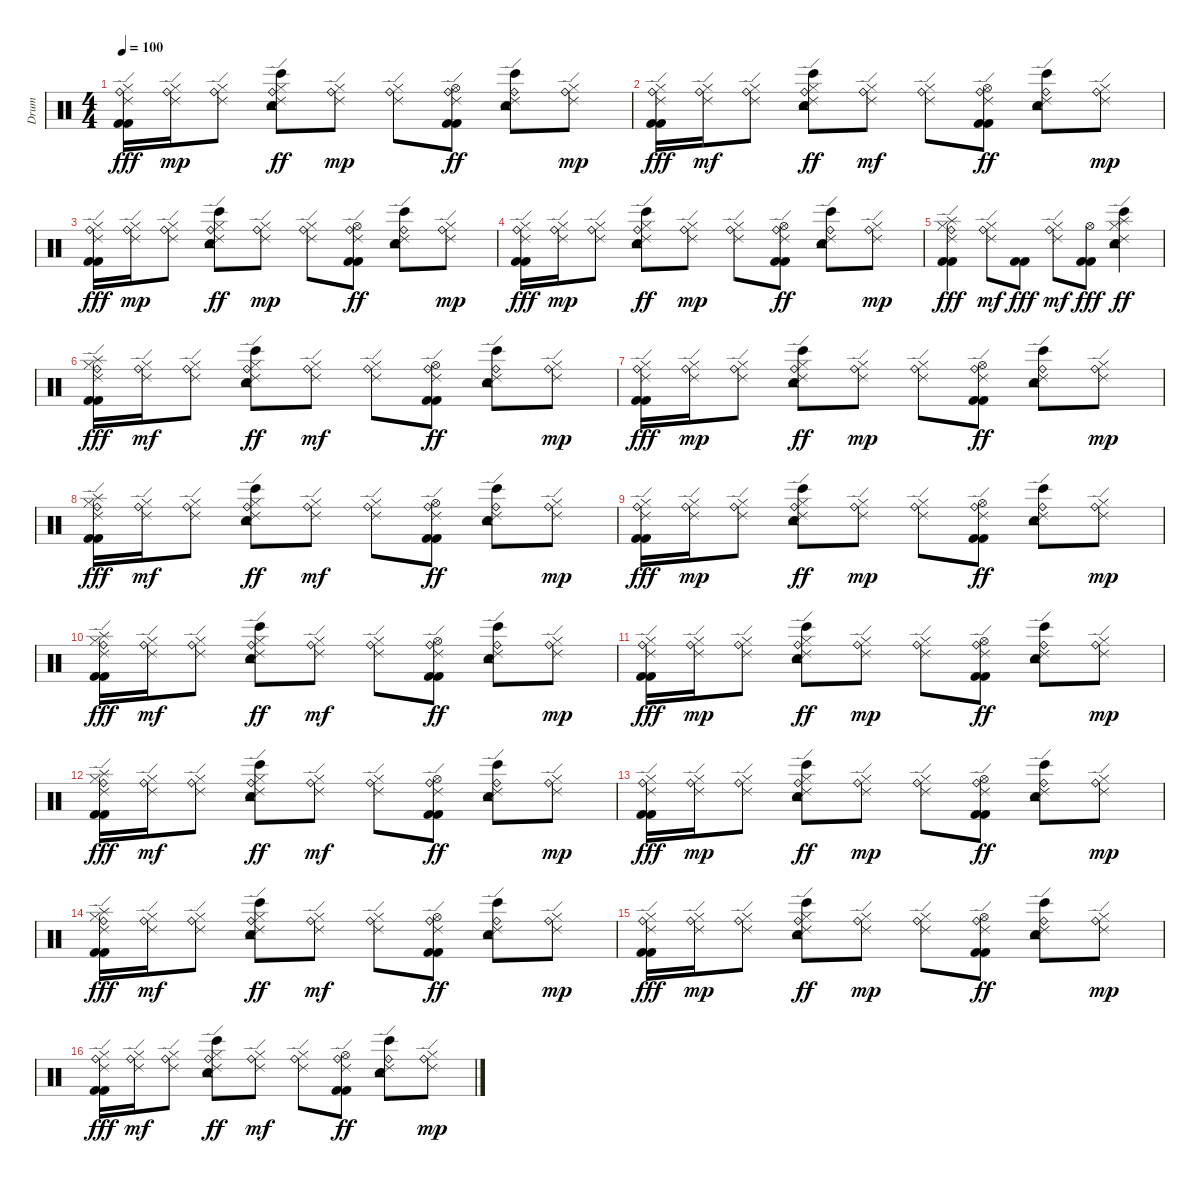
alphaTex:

\track ("Drum" "Drum") {instrument percussion}
\staff {score}
\articulation defaults
\ts (4 4)
\tempo 100
\clef neutral
\ks c
("Ride (bell)" "Ride (edge) 2" "Hi-Hat (closed)" "Kick (hit) 2" "Kick (hit) 2").16{dy fff} ("Ride (bell)" "Ride (edge) 2" "Hi-Hat (closed)").16{dy mp} ("Ride (bell)" "Ride (edge) 2" "Hi-Hat (closed)").8 ("Snare (hit) 2" "Ride (bell)" "Ride (edge) 2" "Hi-Hat (closed)" "Bongo High (hit)" "Tambourine (hit)").8{dy ff} ("Ride (bell)" "Ride (edge) 2" "Hi-Hat (closed)").8{dy mp} ("Ride (bell)" "Ride (edge) 2" "Hi-Hat (closed)").8 ("Ride (bell)" "Ride (edge) 2" "Hi-Hat (open)" "Kick (hit) 2" "Kick (hit) 2").8{dy ff} ("Snare (hit) 2" "Ride (bell)" "Ride (edge) 2" "Bongo High (hit)" "Tambourine (hit)").8 ("Ride (bell)" "Ride (edge) 2" "Hi-Hat (closed)").8{dy mp} |
("Ride (bell)" "Ride (edge) 2" "Hi-Hat (closed)" "Kick (hit) 2" "Kick (hit) 2").16{dy fff} ("Ride (bell)" "Ride (edge) 2" "Hi-Hat (closed)").16{dy mf} ("Ride (bell)" "Ride (edge) 2" "Hi-Hat (closed)").8 ("Snare (hit) 2" "Ride (bell)" "Ride (edge) 2" "Hi-Hat (closed)" "Bongo High (hit)" "Tambourine (hit)").8{dy ff} ("Ride (bell)" "Ride (edge) 2" "Hi-Hat (closed)").8{dy mf} ("Ride (bell)" "Ride (edge) 2" "Hi-Hat (closed)").8 ("Ride (bell)" "Ride (edge) 2" "Hi-Hat (open)" "Kick (hit) 2" "Kick (hit) 2").8{dy ff} ("Snare (hit) 2" "Ride (bell)" "Ride (edge) 2" "Bongo High (hit)" "Tambourine (hit)").8 ("Ride (bell)" "Ride (edge) 2" "Hi-Hat (closed)").8{dy mp} |
("Ride (bell)" "Ride (edge) 2" "Hi-Hat (closed)" "Kick (hit) 2" "Kick (hit) 2").16{dy fff} ("Ride (bell)" "Ride (edge) 2" "Hi-Hat (closed)").16{dy mp} ("Ride (bell)" "Ride (edge) 2" "Hi-Hat (closed)").8 ("Snare (hit) 2" "Ride (bell)" "Ride (edge) 2" "Hi-Hat (closed)" "Bongo High (hit)" "Tambourine (hit)").8{dy ff} ("Ride (bell)" "Ride (edge) 2" "Hi-Hat (closed)").8{dy mp} ("Ride (bell)" "Ride (edge) 2" "Hi-Hat (closed)").8 ("Ride (bell)" "Ride (edge) 2" "Hi-Hat (open)" "Kick (hit) 2" "Kick (hit) 2").8{dy ff} ("Snare (hit) 2" "Ride (bell)" "Ride (edge) 2" "Bongo High (hit)" "Tambourine (hit)").8 ("Ride (bell)" "Ride (edge) 2" "Hi-Hat (closed)").8{dy mp} |
("Ride (bell)" "Ride (edge) 2" "Hi-Hat (closed)" "Kick (hit) 2" "Kick (hit) 2").16{dy fff} ("Ride (bell)" "Ride (edge) 2" "Hi-Hat (closed)").16{dy mp} ("Ride (bell)" "Ride (edge) 2" "Hi-Hat (closed)").8 ("Snare (hit) 2" "Ride (bell)" "Ride (edge) 2" "Hi-Hat (closed)" "Bongo High (hit)" "Tambourine (hit)").8{dy ff} ("Ride (bell)" "Ride (edge) 2" "Hi-Hat (closed)").8{dy mp} ("Ride (bell)" "Ride (edge) 2" "Hi-Hat (closed)").8 ("Ride (bell)" "Ride (edge) 2" "Hi-Hat (open)" "Kick (hit) 2" "Kick (hit) 2").8{dy ff} ("Snare (hit) 2" "Ride (bell)" "Ride (edge) 2" "Bongo High (hit)" "Tambourine (hit)").8 ("Ride (bell)" "Ride (edge) 2" "Hi-Hat (closed)").8{dy mp} |
("Splash (hit)" "Ride (bell)" "Ride (edge) 2" "Hi-Hat (closed)" "Kick (hit) 2" "Kick (hit) 2").4{dy fff} ("Ride (bell)" "Ride (edge) 2" "Hi-Hat (closed)").8{dy mf} ("Kick (hit) 2" "Kick (hit) 2").8{dy fff} ("Ride (bell)" "Ride (edge) 2" "Hi-Hat (closed)").8{dy mf} ("Hi-Hat (open)" "Kick (hit) 2" "Kick (hit) 2").8{dy fff} ("Splash (hit)" "Snare (hit) 2" "Ride (edge) 2" "Hi-Hat (closed)" "Bongo High (hit)" "Tambourine (hit)").4{dy ff} |
("Splash (hit)" "Ride (bell)" "Ride (edge) 2" "Hi-Hat (closed)" "Kick (hit) 2" "Kick (hit) 2").16{dy fff volume 12} ("Ride (bell)" "Ride (edge) 2" "Hi-Hat (closed)").16{dy mf} ("Ride (bell)" "Ride (edge) 2" "Hi-Hat (closed)").8 ("Snare (hit) 2" "Ride (bell)" "Ride (edge) 2" "Hi-Hat (closed)" "Bongo High (hit)" "Tambourine (hit)").8{dy ff} ("Ride (bell)" "Ride (edge) 2" "Hi-Hat (closed)").8{dy mf} ("Ride (bell)" "Ride (edge) 2" "Hi-Hat (closed)").8 ("Ride (bell)" "Ride (edge) 2" "Hi-Hat (open)" "Kick (hit) 2" "Kick (hit) 2").8{dy ff} ("Snare (hit) 2" "Ride (bell)" "Ride (edge) 2" "Bongo High (hit)" "Tambourine (hit)").8 ("Ride (bell)" "Ride (edge) 2" "Hi-Hat (closed)").8{dy mp} |
("Ride (bell)" "Ride (edge) 2" "Hi-Hat (closed)" "Kick (hit) 2" "Kick (hit) 2").16{dy fff} ("Ride (bell)" "Ride (edge) 2" "Hi-Hat (closed)").16{dy mp} ("Ride (bell)" "Ride (edge) 2" "Hi-Hat (closed)").8 ("Snare (hit) 2" "Ride (bell)" "Ride (edge) 2" "Hi-Hat (closed)" "Bongo High (hit)" "Tambourine (hit)").8{dy ff} ("Ride (bell)" "Ride (edge) 2" "Hi-Hat (closed)").8{dy mp} ("Ride (bell)" "Ride (edge) 2" "Hi-Hat (closed)").8 ("Ride (bell)" "Ride (edge) 2" "Hi-Hat (open)" "Kick (hit) 2" "Kick (hit) 2").8{dy ff} ("Snare (hit) 2" "Ride (bell)" "Ride (edge) 2" "Bongo High (hit)" "Tambourine (hit)").8 ("Ride (bell)" "Ride (edge) 2" "Hi-Hat (closed)").8{dy mp} |
("Splash (hit)" "Ride (bell)" "Ride (edge) 2" "Hi-Hat (closed)" "Kick (hit) 2" "Kick (hit) 2").16{dy fff} ("Ride (bell)" "Ride (edge) 2" "Hi-Hat (closed)").16{dy mf} ("Ride (bell)" "Ride (edge) 2" "Hi-Hat (closed)").8 ("Snare (hit) 2" "Ride (bell)" "Ride (edge) 2" "Hi-Hat (closed)" "Bongo High (hit)" "Tambourine (hit)").8{dy ff} ("Ride (bell)" "Ride (edge) 2" "Hi-Hat (closed)").8{dy mf} ("Ride (bell)" "Ride (edge) 2" "Hi-Hat (closed)").8 ("Ride (bell)" "Ride (edge) 2" "Hi-Hat (open)" "Kick (hit) 2" "Kick (hit) 2").8{dy ff} ("Snare (hit) 2" "Ride (bell)" "Ride (edge) 2" "Bongo High (hit)" "Tambourine (hit)").8 ("Ride (bell)" "Ride (edge) 2" "Hi-Hat (closed)").8{dy mp} |
("Ride (bell)" "Ride (edge) 2" "Hi-Hat (closed)" "Kick (hit) 2" "Kick (hit) 2").16{dy fff} ("Ride (bell)" "Ride (edge) 2" "Hi-Hat (closed)").16{dy mp} ("Ride (bell)" "Ride (edge) 2" "Hi-Hat (closed)").8 ("Snare (hit) 2" "Ride (bell)" "Ride (edge) 2" "Hi-Hat (closed)" "Bongo High (hit)" "Tambourine (hit)").8{dy ff} ("Ride (bell)" "Ride (edge) 2" "Hi-Hat (closed)").8{dy mp} ("Ride (bell)" "Ride (edge) 2" "Hi-Hat (closed)").8 ("Ride (bell)" "Ride (edge) 2" "Hi-Hat (open)" "Kick (hit) 2" "Kick (hit) 2").8{dy ff} ("Snare (hit) 2" "Ride (bell)" "Ride (edge) 2" "Bongo High (hit)" "Tambourine (hit)").8 ("Ride (bell)" "Ride (edge) 2" "Hi-Hat (closed)").8{dy mp} |
("Splash (hit)" "Ride (bell)" "Ride (edge) 2" "Hi-Hat (closed)" "Kick (hit) 2" "Kick (hit) 2").16{dy fff} ("Ride (bell)" "Ride (edge) 2" "Hi-Hat (closed)").16{dy mf} ("Ride (bell)" "Ride (edge) 2" "Hi-Hat (closed)").8 ("Snare (hit) 2" "Ride (bell)" "Ride (edge) 2" "Hi-Hat (closed)" "Bongo High (hit)" "Tambourine (hit)").8{dy ff} ("Ride (bell)" "Ride (edge) 2" "Hi-Hat (closed)").8{dy mf} ("Ride (bell)" "Ride (edge) 2" "Hi-Hat (closed)").8 ("Ride (bell)" "Ride (edge) 2" "Hi-Hat (open)" "Kick (hit) 2" "Kick (hit) 2").8{dy ff} ("Snare (hit) 2" "Ride (bell)" "Ride (edge) 2" "Bongo High (hit)" "Tambourine (hit)").8 ("Ride (bell)" "Ride (edge) 2" "Hi-Hat (closed)").8{dy mp} |
("Ride (bell)" "Ride (edge) 2" "Hi-Hat (closed)" "Kick (hit) 2" "Kick (hit) 2").16{dy fff} ("Ride (bell)" "Ride (edge) 2" "Hi-Hat (closed)").16{dy mp} ("Ride (bell)" "Ride (edge) 2" "Hi-Hat (closed)").8 ("Snare (hit) 2" "Ride (bell)" "Ride (edge) 2" "Hi-Hat (closed)" "Bongo High (hit)" "Tambourine (hit)").8{dy ff} ("Ride (bell)" "Ride (edge) 2" "Hi-Hat (closed)").8{dy mp} ("Ride (bell)" "Ride (edge) 2" "Hi-Hat (closed)").8 ("Ride (bell)" "Ride (edge) 2" "Hi-Hat (open)" "Kick (hit) 2" "Kick (hit) 2").8{dy ff} ("Snare (hit) 2" "Ride (bell)" "Ride (edge) 2" "Bongo High (hit)" "Tambourine (hit)").8 ("Ride (bell)" "Ride (edge) 2" "Hi-Hat (closed)").8{dy mp} |
("Splash (hit)" "Ride (bell)" "Ride (edge) 2" "Hi-Hat (closed)" "Kick (hit) 2" "Kick (hit) 2").16{dy fff} ("Ride (bell)" "Ride (edge) 2" "Hi-Hat (closed)").16{dy mf} ("Ride (bell)" "Ride (edge) 2" "Hi-Hat (closed)").8 ("Snare (hit) 2" "Ride (bell)" "Ride (edge) 2" "Hi-Hat (closed)" "Bongo High (hit)" "Tambourine (hit)").8{dy ff} ("Ride (bell)" "Ride (edge) 2" "Hi-Hat (closed)").8{dy mf} ("Ride (bell)" "Ride (edge) 2" "Hi-Hat (closed)").8 ("Ride (bell)" "Ride (edge) 2" "Hi-Hat (open)" "Kick (hit) 2" "Kick (hit) 2").8{dy ff} ("Snare (hit) 2" "Ride (bell)" "Ride (edge) 2" "Bongo High (hit)" "Tambourine (hit)").8 ("Ride (bell)" "Ride (edge) 2" "Hi-Hat (closed)").8{dy mp} |
("Ride (bell)" "Ride (edge) 2" "Hi-Hat (closed)" "Kick (hit) 2" "Kick (hit) 2").16{dy fff} ("Ride (bell)" "Ride (edge) 2" "Hi-Hat (closed)").16{dy mp} ("Ride (bell)" "Ride (edge) 2" "Hi-Hat (closed)").8 ("Snare (hit) 2" "Ride (bell)" "Ride (edge) 2" "Hi-Hat (closed)" "Bongo High (hit)" "Tambourine (hit)").8{dy ff} ("Ride (bell)" "Ride (edge) 2" "Hi-Hat (closed)").8{dy mp} ("Ride (bell)" "Ride (edge) 2" "Hi-Hat (closed)").8 ("Ride (bell)" "Ride (edge) 2" "Hi-Hat (open)" "Kick (hit) 2" "Kick (hit) 2").8{dy ff} ("Snare (hit) 2" "Ride (bell)" "Ride (edge) 2" "Bongo High (hit)" "Tambourine (hit)").8 ("Ride (bell)" "Ride (edge) 2" "Hi-Hat (closed)").8{dy mp} |
("Splash (hit)" "Ride (bell)" "Ride (edge) 2" "Hi-Hat (closed)" "Kick (hit) 2" "Kick (hit) 2").16{dy fff volume 11} ("Ride (bell)" "Ride (edge) 2" "Hi-Hat (closed)").16{dy mf} ("Ride (bell)" "Ride (edge) 2" "Hi-Hat (closed)").8 ("Snare (hit) 2" "Ride (bell)" "Ride (edge) 2" "Hi-Hat (closed)" "Bongo High (hit)" "Tambourine (hit)").8{dy ff} ("Ride (bell)" "Ride (edge) 2" "Hi-Hat (closed)").8{dy mf} ("Ride (bell)" "Ride (edge) 2" "Hi-Hat (closed)").8 ("Ride (bell)" "Ride (edge) 2" "Hi-Hat (open)" "Kick (hit) 2" "Kick (hit) 2").8{dy ff} ("Snare (hit) 2" "Ride (bell)" "Ride (edge) 2" "Bongo High (hit)" "Tambourine (hit)").8 ("Ride (bell)" "Ride (edge) 2" "Hi-Hat (closed)").8{dy mp} |
("Ride (bell)" "Ride (edge) 2" "Hi-Hat (closed)" "Kick (hit) 2" "Kick (hit) 2").16{dy fff} ("Ride (bell)" "Ride (edge) 2" "Hi-Hat (closed)").16{dy mp} ("Ride (bell)" "Ride (edge) 2" "Hi-Hat (closed)").8 ("Snare (hit) 2" "Ride (bell)" "Ride (edge) 2" "Hi-Hat (closed)" "Bongo High (hit)" "Tambourine (hit)").8{dy ff} ("Ride (bell)" "Ride (edge) 2" "Hi-Hat (closed)").8{dy mp} ("Ride (bell)" "Ride (edge) 2" "Hi-Hat (closed)").8 ("Ride (bell)" "Ride (edge) 2" "Hi-Hat (open)" "Kick (hit) 2" "Kick (hit) 2").8{dy ff} ("Snare (hit) 2" "Ride (bell)" "Ride (edge) 2" "Bongo High (hit)" "Tambourine (hit)").8 ("Ride (bell)" "Ride (edge) 2" "Hi-Hat (closed)").8{dy mp} |
("Ride (bell)" "Ride (edge) 2" "Hi-Hat (closed)" "Kick (hit) 2" "Kick (hit) 2").16{dy fff} ("Ride (bell)" "Ride (edge) 2" "Hi-Hat (closed)").16{dy mf} ("Ride (bell)" "Ride (edge) 2" "Hi-Hat (closed)").8 ("Snare (hit) 2" "Ride (bell)" "Ride (edge) 2" "Hi-Hat (closed)" "Bongo High (hit)" "Tambourine (hit)").8{dy ff} ("Ride (bell)" "Ride (edge) 2" "Hi-Hat (closed)").8{dy mf} ("Ride (bell)" "Ride (edge) 2" "Hi-Hat (closed)").8 ("Ride (bell)" "Ride (edge) 2" "Hi-Hat (open)" "Kick (hit) 2" "Kick (hit) 2").8{dy ff} ("Snare (hit) 2" "Ride (bell)" "Ride (edge) 2" "Bongo High (hit)" "Tambourine (hit)").8 ("Ride (bell)" "Ride (edge) 2" "Hi-Hat (closed)").8{dy mp}
